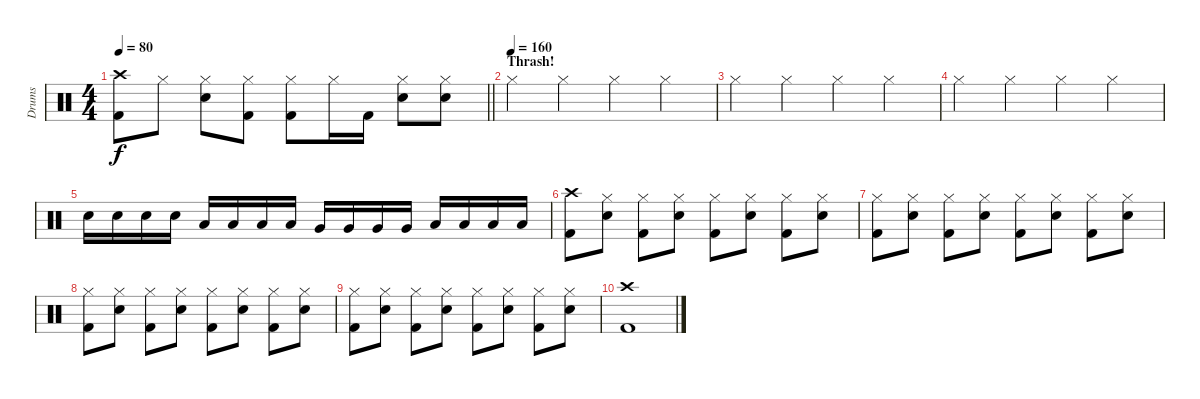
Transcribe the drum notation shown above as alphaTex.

\track ("Drums" "Drums") {instrument percussion}
\staff {score}
\articulation defaults
\ts (4 4)
\tempo 80
\clef neutral
\barLineRight lightlight
\ks c
("Crash high (hit)" "Kick (hit) 2").8{dy f} "Hi-Hat (closed)".8 ("Hi-Hat (closed)" "Snare (hit) 2").8 ("Hi-Hat (closed)" "Kick (hit) 2").8 ("Hi-Hat (closed)" "Kick (hit) 2").8 "Hi-Hat (closed)".16 "Kick (hit) 2".16 ("Hi-Hat (closed)" "Snare (hit) 2").8 ("Hi-Hat (closed)" "Snare (hit) 2").8 |
\section ("" "Thrash!")
\tempo (160)
"Hi-Hat (closed)".4 "Hi-Hat (closed)".4 "Hi-Hat (closed)".4 "Hi-Hat (closed)".4 |
"Hi-Hat (closed)".4 "Hi-Hat (closed)".4 "Hi-Hat (closed)".4 "Hi-Hat (closed)".4 |
"Hi-Hat (closed)".4 "Hi-Hat (closed)".4 "Hi-Hat (closed)".4 "Hi-Hat (closed)".4 |
"Snare (hit) 2".16 "Snare (hit) 2".16 "Snare (hit) 2".16 "Snare (hit) 2".16 "Low Tom (hit)".16 "Low Tom (hit)".16 "Low Tom (hit)".16 "Low Tom (hit)".16 "Very Low Tom (hit)".16 "Very Low Tom (hit)".16 "Very Low Tom (hit)".16 "Very Low Tom (hit)".16 "Low Floor Tom (hit)".16 "Low Floor Tom (hit)".16 "Low Floor Tom (hit)".16 "Low Floor Tom (hit)".16 |
("Kick (hit) 2" "Crash high (hit)").8 ("Snare (hit) 2" "Hi-Hat (closed)").8 ("Kick (hit) 2" "Hi-Hat (closed)").8 ("Snare (hit) 2" "Hi-Hat (closed)").8 ("Kick (hit) 2" "Hi-Hat (closed)").8 ("Snare (hit) 2" "Hi-Hat (closed)").8 ("Kick (hit) 2" "Hi-Hat (closed)").8 ("Snare (hit) 2" "Hi-Hat (closed)").8 |
("Kick (hit) 2" "Hi-Hat (closed)").8 ("Snare (hit) 2" "Hi-Hat (closed)").8 ("Kick (hit) 2" "Hi-Hat (closed)").8 ("Snare (hit) 2" "Hi-Hat (closed)").8 ("Kick (hit) 2" "Hi-Hat (closed)").8 ("Snare (hit) 2" "Hi-Hat (closed)").8 ("Kick (hit) 2" "Hi-Hat (closed)").8 ("Snare (hit) 2" "Hi-Hat (closed)").8 |
("Kick (hit) 2" "Hi-Hat (closed)").8 ("Snare (hit) 2" "Hi-Hat (closed)").8 ("Kick (hit) 2" "Hi-Hat (closed)").8 ("Snare (hit) 2" "Hi-Hat (closed)").8 ("Kick (hit) 2" "Hi-Hat (closed)").8 ("Snare (hit) 2" "Hi-Hat (closed)").8 ("Kick (hit) 2" "Hi-Hat (closed)").8 ("Snare (hit) 2" "Hi-Hat (closed)").8 |
("Kick (hit) 2" "Hi-Hat (closed)").8 ("Snare (hit) 2" "Hi-Hat (closed)").8 ("Kick (hit) 2" "Hi-Hat (closed)").8 ("Snare (hit) 2" "Hi-Hat (closed)").8 ("Kick (hit) 2" "Hi-Hat (closed)").8 ("Snare (hit) 2" "Hi-Hat (closed)").8 ("Kick (hit) 2" "Hi-Hat (closed)").8 ("Snare (hit) 2" "Hi-Hat (closed)").8 |
("Kick (hit) 2" "Crash high (hit)").1
